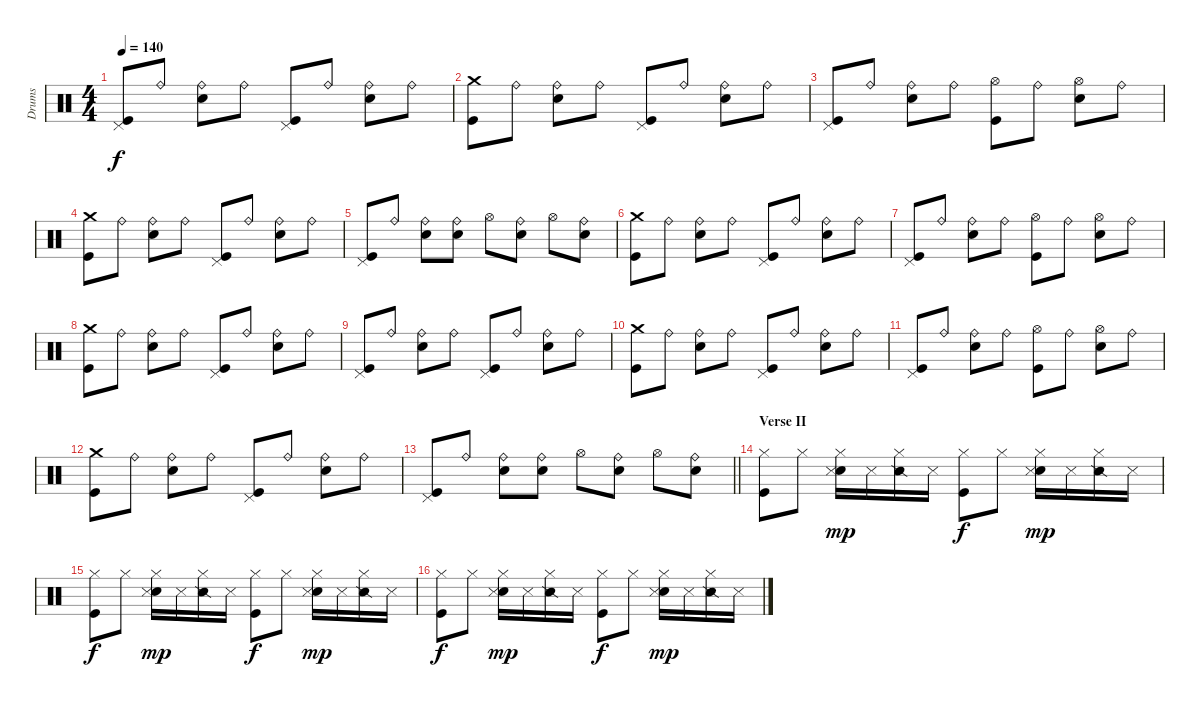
\track ("Drums" "Drums") {instrument percussion}
\staff {score}
\articulation defaults
\ts (4 4)
\tempo 140
\clef neutral
\ks c
("Pedal Hi-Hat (hit)" "Kick (hit)").8{dy f} "Ride (bell)".8 ("Ride (bell)" "Snare (hit) 2").8 "Ride (bell)".8 ("Pedal Hi-Hat (hit)" "Kick (hit)").8 "Ride (bell)".8 ("Ride (bell)" "Snare (hit) 2").8 "Ride (bell)".8 |
("Crash medium (hit)" "Kick (hit)").8 "Ride (bell)".8 ("Ride (bell)" "Snare (hit) 2").8 "Ride (bell)".8 ("Pedal Hi-Hat (hit)" "Kick (hit)").8 "Ride (bell)".8 ("Ride (bell)" "Snare (hit) 2").8 "Ride (bell)".8 |
("Pedal Hi-Hat (hit)" "Kick (hit)").8 "Ride (bell)".8 ("Ride (bell)" "Snare (hit) 2").8 "Ride (bell)".8 ("Hi-Hat (open)" "Kick (hit)").8 "Ride (bell)".8 ("Hi-Hat (open)" "Snare (hit) 2").8 "Ride (bell)".8 |
("Crash medium (hit)" "Kick (hit)").8 "Ride (bell)".8 ("Ride (bell)" "Snare (hit) 2").8 "Ride (bell)".8 ("Pedal Hi-Hat (hit)" "Kick (hit)").8 "Ride (bell)".8 ("Ride (bell)" "Snare (hit) 2").8 "Ride (bell)".8 |
("Pedal Hi-Hat (hit)" "Kick (hit)").8 "Ride (bell)".8 ("Ride (bell)" "Snare (hit) 2").8 ("Ride (bell)" "Snare (hit) 2").8 "Hi-Hat (open)".8 ("Ride (bell)" "Snare (hit) 2").8 "Hi-Hat (open)".8 ("Ride (bell)" "Snare (hit) 2").8 |
("Crash medium (hit)" "Kick (hit)").8 "Ride (bell)".8 ("Ride (bell)" "Snare (hit) 2").8 "Ride (bell)".8 ("Pedal Hi-Hat (hit)" "Kick (hit)").8 "Ride (bell)".8 ("Ride (bell)" "Snare (hit) 2").8 "Ride (bell)".8 |
("Pedal Hi-Hat (hit)" "Kick (hit)").8 "Ride (bell)".8 ("Ride (bell)" "Snare (hit) 2").8 "Ride (bell)".8 ("Hi-Hat (open)" "Kick (hit)").8 "Ride (bell)".8 ("Hi-Hat (open)" "Snare (hit) 2").8 "Ride (bell)".8 |
("Crash medium (hit)" "Kick (hit)").8 "Ride (bell)".8 ("Ride (bell)" "Snare (hit) 2").8 "Ride (bell)".8 ("Pedal Hi-Hat (hit)" "Kick (hit)").8 "Ride (bell)".8 ("Ride (bell)" "Snare (hit) 2").8 "Ride (bell)".8 |
("Pedal Hi-Hat (hit)" "Kick (hit)").8 "Ride (bell)".8 ("Ride (bell)" "Snare (hit) 2").8 "Ride (bell)".8 ("Pedal Hi-Hat (hit)" "Kick (hit)").8 "Ride (bell)".8 ("Ride (bell)" "Snare (hit) 2").8 "Ride (bell)".8 |
("Crash medium (hit)" "Kick (hit)").8 "Ride (bell)".8 ("Ride (bell)" "Snare (hit) 2").8 "Ride (bell)".8 ("Pedal Hi-Hat (hit)" "Kick (hit)").8 "Ride (bell)".8 ("Ride (bell)" "Snare (hit) 2").8 "Ride (bell)".8 |
("Pedal Hi-Hat (hit)" "Kick (hit)").8 "Ride (bell)".8 ("Ride (bell)" "Snare (hit) 2").8 "Ride (bell)".8 ("Hi-Hat (open)" "Kick (hit)").8 "Ride (bell)".8 ("Hi-Hat (open)" "Snare (hit) 2").8 "Ride (bell)".8 |
("Crash medium (hit)" "Kick (hit)").8 "Ride (bell)".8 ("Ride (bell)" "Snare (hit) 2").8 "Ride (bell)".8 ("Pedal Hi-Hat (hit)" "Kick (hit)").8 "Ride (bell)".8 ("Ride (bell)" "Snare (hit) 2").8 "Ride (bell)".8 |
\barLineRight lightlight
("Pedal Hi-Hat (hit)" "Kick (hit)").8 "Ride (bell)".8 ("Ride (bell)" "Snare (hit) 2").8 ("Ride (bell)" "Snare (hit) 2").8 "Hi-Hat (open)".8 ("Ride (bell)" "Snare (hit) 2").8 "Hi-Hat (open)".8 ("Ride (bell)" "Snare (hit) 2").8 |
\section ("" "Verse II")
("Hi-Hat (closed)" "Kick (hit)").8 "Hi-Hat (closed)".8 ("Hi-Hat (closed)" "Snare (hit) 2" "Snare (side stick) 3").16{dy mp} "Metronome (hit)".16 ("Hi-Hat (closed)" "Snare (side stick) 2").16 "Metronome (hit)".16 ("Hi-Hat (closed)" "Kick (hit)").8{dy f} "Hi-Hat (closed)".8 ("Hi-Hat (closed)" "Snare (hit) 2" "Snare (side stick) 3").16{dy mp} "Metronome (hit)".16 ("Hi-Hat (closed)" "Snare (side stick) 2").16 "Metronome (hit)".16 |
("Hi-Hat (closed)" "Kick (hit)").8{dy f} "Hi-Hat (closed)".8 ("Hi-Hat (closed)" "Snare (hit) 2" "Snare (side stick) 3").16{dy mp} "Metronome (hit)".16 ("Hi-Hat (closed)" "Snare (side stick) 2").16 "Metronome (hit)".16 ("Hi-Hat (closed)" "Kick (hit)").8{dy f} "Hi-Hat (closed)".8 ("Hi-Hat (closed)" "Snare (hit) 2" "Snare (side stick) 3").16{dy mp} "Metronome (hit)".16 ("Hi-Hat (closed)" "Snare (side stick) 2").16 "Metronome (hit)".16 |
("Hi-Hat (closed)" "Kick (hit)").8{dy f} "Hi-Hat (closed)".8 ("Hi-Hat (closed)" "Snare (hit) 2" "Snare (side stick) 3").16{dy mp} "Metronome (hit)".16 ("Hi-Hat (closed)" "Snare (side stick) 2").16 "Metronome (hit)".16 ("Hi-Hat (closed)" "Kick (hit)").8{dy f} "Hi-Hat (closed)".8 ("Hi-Hat (closed)" "Snare (hit) 2" "Snare (side stick) 3").16{dy mp} "Metronome (hit)".16 ("Hi-Hat (closed)" "Snare (side stick) 2").16 "Metronome (hit)".16
